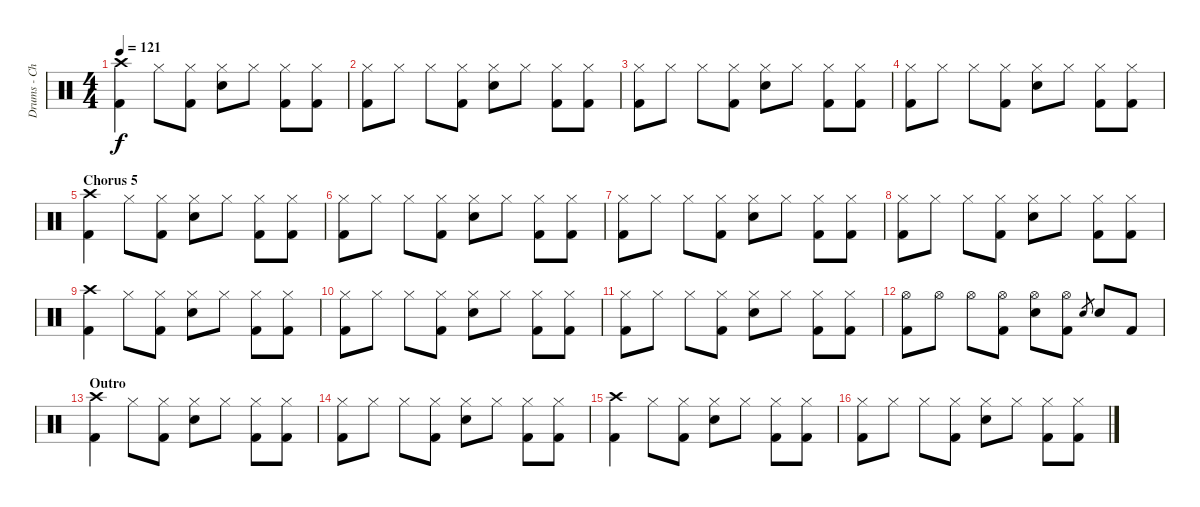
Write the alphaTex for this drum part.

\track ("Drums - Chad" "Drums - Ch") {instrument percussion}
\staff {score}
\articulation defaults
\ts (4 4)
\tempo 121
\clef neutral
\ks c
("Crash high (hit)" "Kick (hit) 2").4{dy f} "Hi-Hat (closed)".8 ("Hi-Hat (closed)" "Kick (hit) 2").8 ("Hi-Hat (closed)" "Electric Snare (hit)").8 "Hi-Hat (closed)".8 ("Hi-Hat (closed)" "Kick (hit) 2").8 ("Hi-Hat (closed)" "Kick (hit) 2").8 |
("Hi-Hat (closed)" "Kick (hit) 2").8 "Hi-Hat (closed)".8 "Hi-Hat (closed)".8 ("Hi-Hat (closed)" "Kick (hit) 2").8 ("Hi-Hat (closed)" "Electric Snare (hit)").8 "Hi-Hat (closed)".8 ("Hi-Hat (closed)" "Kick (hit) 2").8 ("Hi-Hat (closed)" "Kick (hit) 2").8 |
("Hi-Hat (closed)" "Kick (hit) 2").8 "Hi-Hat (closed)".8 "Hi-Hat (closed)".8 ("Hi-Hat (closed)" "Kick (hit) 2").8 ("Hi-Hat (closed)" "Electric Snare (hit)").8 "Hi-Hat (closed)".8 ("Hi-Hat (closed)" "Kick (hit) 2").8 ("Hi-Hat (closed)" "Kick (hit) 2").8 |
("Hi-Hat (closed)" "Kick (hit) 2").8 "Hi-Hat (closed)".8 "Hi-Hat (closed)".8 ("Hi-Hat (closed)" "Kick (hit) 2").8 ("Hi-Hat (closed)" "Electric Snare (hit)").8 "Hi-Hat (closed)".8 ("Hi-Hat (closed)" "Kick (hit) 2").8 ("Hi-Hat (closed)" "Kick (hit) 2").8 |
\section ("" "Chorus 5")
("Crash high (hit)" "Kick (hit) 2").4 "Hi-Hat (closed)".8 ("Hi-Hat (closed)" "Kick (hit) 2").8 ("Hi-Hat (closed)" "Electric Snare (hit)").8 "Hi-Hat (closed)".8 ("Hi-Hat (closed)" "Kick (hit) 2").8 ("Hi-Hat (closed)" "Kick (hit) 2").8 |
("Hi-Hat (closed)" "Kick (hit) 2").8 "Hi-Hat (closed)".8 "Hi-Hat (closed)".8 ("Hi-Hat (closed)" "Kick (hit) 2").8 ("Hi-Hat (closed)" "Electric Snare (hit)").8 "Hi-Hat (closed)".8 ("Hi-Hat (closed)" "Kick (hit) 2").8 ("Hi-Hat (closed)" "Kick (hit) 2").8 |
("Hi-Hat (closed)" "Kick (hit) 2").8 "Hi-Hat (closed)".8 "Hi-Hat (closed)".8 ("Hi-Hat (closed)" "Kick (hit) 2").8 ("Hi-Hat (closed)" "Electric Snare (hit)").8 "Hi-Hat (closed)".8 ("Hi-Hat (closed)" "Kick (hit) 2").8 ("Hi-Hat (closed)" "Kick (hit) 2").8 |
("Hi-Hat (closed)" "Kick (hit) 2").8 "Hi-Hat (closed)".8 "Hi-Hat (closed)".8 ("Hi-Hat (closed)" "Kick (hit) 2").8 ("Hi-Hat (closed)" "Electric Snare (hit)").8 "Hi-Hat (closed)".8 ("Hi-Hat (closed)" "Kick (hit) 2").8 ("Hi-Hat (closed)" "Kick (hit) 2").8 |
("Crash high (hit)" "Kick (hit) 2").4 "Hi-Hat (closed)".8 ("Hi-Hat (closed)" "Kick (hit) 2").8 ("Hi-Hat (closed)" "Electric Snare (hit)").8 "Hi-Hat (closed)".8 ("Hi-Hat (closed)" "Kick (hit) 2").8 ("Hi-Hat (closed)" "Kick (hit) 2").8 |
("Hi-Hat (closed)" "Kick (hit) 2").8 "Hi-Hat (closed)".8 "Hi-Hat (closed)".8 ("Hi-Hat (closed)" "Kick (hit) 2").8 ("Hi-Hat (closed)" "Electric Snare (hit)").8 "Hi-Hat (closed)".8 ("Hi-Hat (closed)" "Kick (hit) 2").8 ("Hi-Hat (closed)" "Kick (hit) 2").8 |
("Hi-Hat (closed)" "Kick (hit) 2").8 "Hi-Hat (closed)".8 "Hi-Hat (closed)".8 ("Hi-Hat (closed)" "Kick (hit) 2").8 ("Hi-Hat (closed)" "Electric Snare (hit)").8 "Hi-Hat (closed)".8 ("Hi-Hat (closed)" "Kick (hit) 2").8 ("Hi-Hat (closed)" "Kick (hit) 2").8 |
("Hi-Hat (open)" "Kick (hit) 2").8 "Hi-Hat (open)".8 "Hi-Hat (open)".8 ("Hi-Hat (open)" "Kick (hit) 2").8 ("Hi-Hat (open)" "Electric Snare (hit)").8 ("Hi-Hat (open)" "Kick (hit) 2").8 "Electric Snare (hit)".8{gr} "Electric Snare (hit)".8 "Kick (hit) 2".8 |
\section ("" "Outro")
("Crash high (hit)" "Kick (hit) 2").4 "Hi-Hat (closed)".8 ("Hi-Hat (closed)" "Kick (hit) 2").8 ("Hi-Hat (closed)" "Electric Snare (hit)").8 "Hi-Hat (closed)".8 ("Hi-Hat (closed)" "Kick (hit) 2").8 ("Hi-Hat (closed)" "Kick (hit) 2").8 |
("Hi-Hat (closed)" "Kick (hit) 2").8 "Hi-Hat (closed)".8 "Hi-Hat (closed)".8 ("Hi-Hat (closed)" "Kick (hit) 2").8 ("Hi-Hat (closed)" "Electric Snare (hit)").8 "Hi-Hat (closed)".8 ("Hi-Hat (closed)" "Kick (hit) 2").8 ("Hi-Hat (closed)" "Kick (hit) 2").8 |
("Crash high (hit)" "Kick (hit) 2").4 "Hi-Hat (closed)".8 ("Hi-Hat (closed)" "Kick (hit) 2").8 ("Hi-Hat (closed)" "Electric Snare (hit)").8 "Hi-Hat (closed)".8 ("Hi-Hat (closed)" "Kick (hit) 2").8 ("Hi-Hat (closed)" "Kick (hit) 2").8 |
("Hi-Hat (closed)" "Kick (hit) 2").8 "Hi-Hat (closed)".8 "Hi-Hat (closed)".8 ("Hi-Hat (closed)" "Kick (hit) 2").8 ("Hi-Hat (closed)" "Electric Snare (hit)").8 "Hi-Hat (closed)".8 ("Hi-Hat (closed)" "Kick (hit) 2").8 ("Hi-Hat (closed)" "Kick (hit) 2").8
